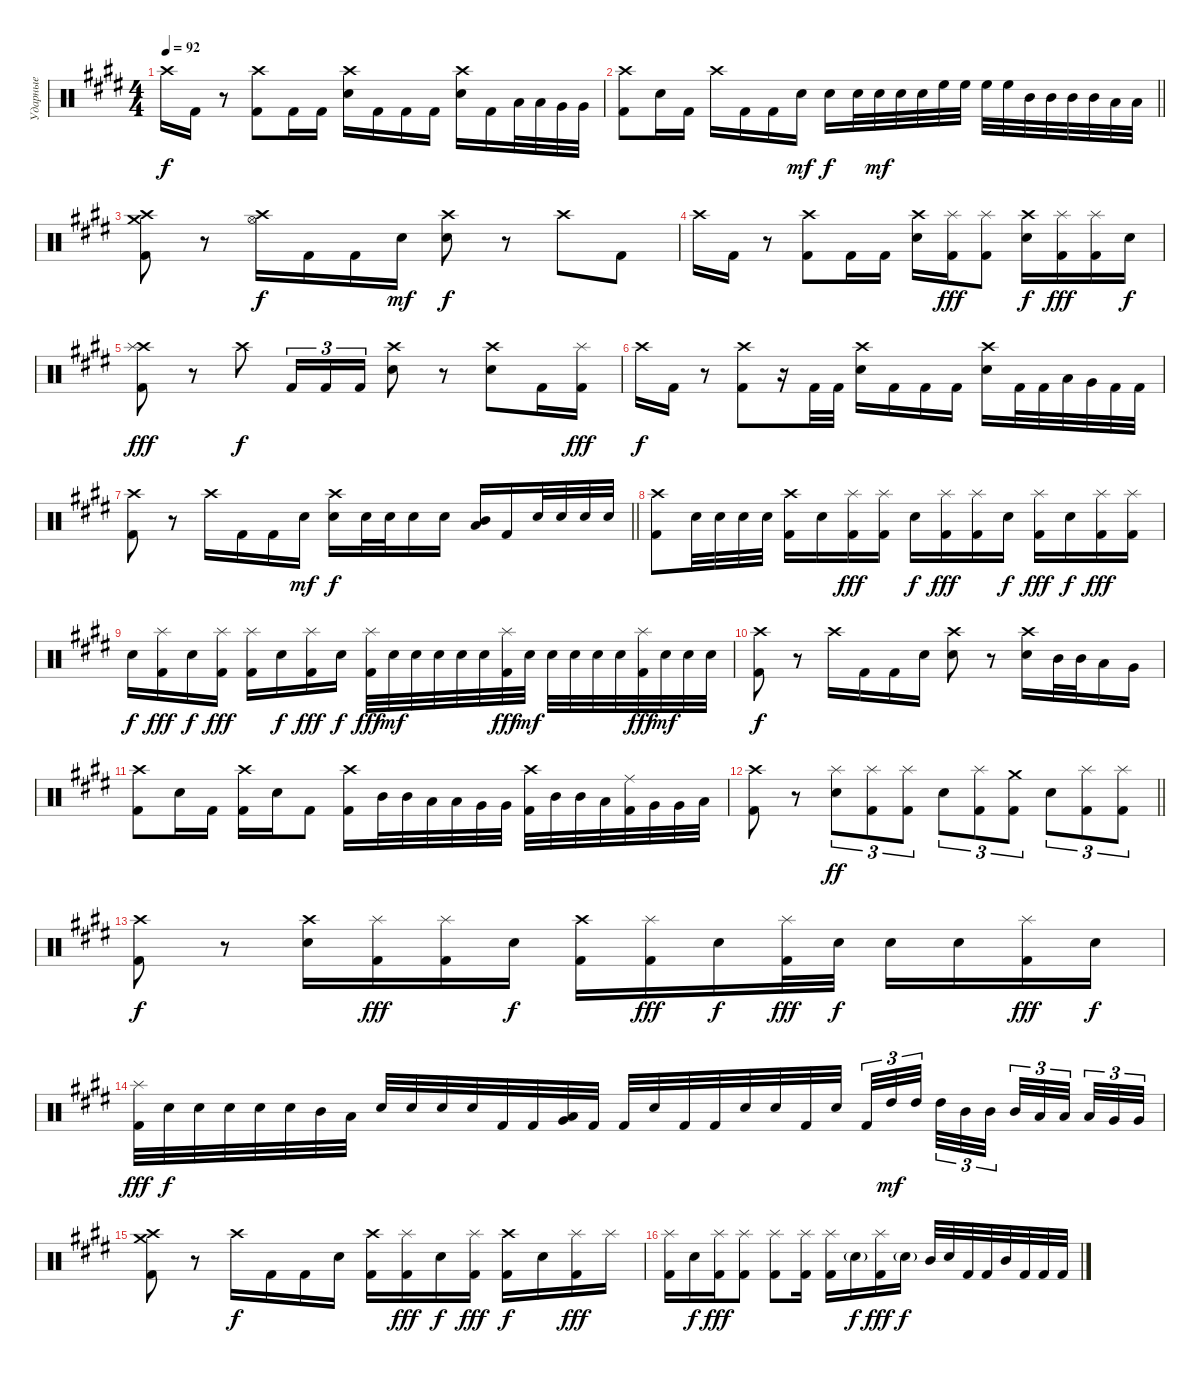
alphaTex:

\track ("Ударные" "Ударные") {instrument percussion}
\staff {score}
\articulation defaults
\ts (4 4)
\tempo 92
\clef neutral
\ks e "Crash high (hit)".16{dy f} "Kick (hit) 2".16
r.8 ("Crash high (hit)" "Kick (hit) 2").8 "Kick (hit) 2".16 "Kick (hit) 2".16 ("Crash high (hit)" "Electric Snare (hit)").16 "Kick (hit) 2".16 "Kick (hit) 2".16 "Kick (hit) 2".16 ("Crash high (hit)" "Electric Snare (hit)").16 "Kick (hit) 2".16 "Low Tom (hit)".32 "Low Tom (hit)".32 "Very Low Tom (hit)".32 "Very Low Tom (hit)".32 |
\barLineRight lightlight
("Crash high (hit)" "Kick (hit) 2").8 "Electric Snare (hit)".16 "Kick (hit) 2".16 "Crash high (hit)".16 "Kick (hit) 2".16 "Kick (hit) 2".16 "Electric Snare (hit)".16{dy mf} "Electric Snare (hit)".16{dy f} "Electric Snare (hit)".32 "Electric Snare (hit)".32{dy mf} "Electric Snare (hit)".32 "Electric Snare (hit)".32 "High Floor Tom (hit)".32 "High Floor Tom (hit)".32 "High Floor Tom (hit)".32 "High Floor Tom (hit)".32 "Mid Tom (hit)".32 "Mid Tom (hit)".32 "Mid Tom (hit)".32 "Mid Tom (hit)".32 "Low Tom (hit)".32 "Low Tom (hit)".32 |
("Crash high (hit)" "Crash medium (hit)" "Kick (hit) 2").8 r.8 ("Crash high (hit)" "Hi-Hat (open)").16{dy f} "Kick (hit) 2".16 "Kick (hit) 2".16 "Electric Snare (hit)".16{dy mf} ("Crash high (hit)" "Electric Snare (hit)").8{dy f} r.8 "Crash high (hit)".8 "Kick (hit) 2".8 |
"Crash high (hit)".16 "Kick (hit) 2".16 r.8 ("Crash high (hit)" "Kick (hit) 2").8 "Kick (hit) 2".16 "Kick (hit) 2".16 ("Crash high (hit)" "Electric Snare (hit)").16 ("Splash (hit)" "Kick (hit) 2").16{dy fff} ("Splash (hit)" "Kick (hit) 2").8 ("Crash high (hit)" "Electric Snare (hit)").16{dy f} ("Splash (hit)" "Kick (hit) 2").16{dy fff} ("Splash (hit)" "Kick (hit) 2").16 "Electric Snare (hit)".16{dy f} |
("Crash high (hit)" "Splash (hit)" "Kick (hit) 2").8{dy fff} r.8 "Crash high (hit)".8{dy f} "Kick (hit) 2".16{tu (3 2)} "Kick (hit) 2".16{tu (3 2)} "Kick (hit) 2".16{tu (3 2)} ("Crash high (hit)" "Electric Snare (hit)").8 r.8 ("Crash high (hit)" "Electric Snare (hit)").8 "Kick (hit) 2".16 ("Splash (hit)" "Kick (hit) 2").16{dy fff} |
"Crash high (hit)".16{dy f} "Kick (hit) 2".16 r.8 ("Crash high (hit)" "Kick (hit) 2").8 r.16 "Kick (hit) 2".32 "Kick (hit) 2".32 ("Crash high (hit)" "Electric Snare (hit)").16 "Kick (hit) 2".16 "Kick (hit) 2".16 "Kick (hit) 2".16 ("Crash high (hit)" "Electric Snare (hit)").16 "Kick (hit) 2".32 "Kick (hit) 2".32 "Low Tom (hit)".32 "Very Low Tom (hit)".32 "Kick (hit) 2".32 "Kick (hit) 2".32 |
\barLineRight lightlight
("Crash high (hit)" "Kick (hit) 2").8 r.8 "Crash high (hit)".16 "Kick (hit) 2".16 "Kick (hit) 2".16 "Electric Snare (hit)".16{dy mf} ("Crash high (hit)" "Electric Snare (hit)").16{dy f} "Electric Snare (hit)".32 "Electric Snare (hit)".32 "Electric Snare (hit)".16 "Electric Snare (hit)".16 ("Low Tom (hit)" "Mid Tom (hit)").16 "Kick (hit) 2".16 "Electric Snare (hit)".32 "Electric Snare (hit)".32 "Electric Snare (hit)".32 "Electric Snare (hit)".32 |
("Crash high (hit)" "Kick (hit) 2").8 "Electric Snare (hit)".32 "Electric Snare (hit)".32 "Electric Snare (hit)".32 "Electric Snare (hit)".32 ("Crash high (hit)" "Kick (hit) 2").16 "Electric Snare (hit)".16 ("Splash (hit)" "Kick (hit) 2").16{dy fff} ("Splash (hit)" "Kick (hit) 2").16 "Electric Snare (hit)".16{dy f} ("Splash (hit)" "Kick (hit) 2").16{dy fff} ("Splash (hit)" "Kick (hit) 2").16 "Electric Snare (hit)".16{dy f} ("Splash (hit)" "Kick (hit) 2").16{dy fff} "Electric Snare (hit)".16{dy f} ("Splash (hit)" "Kick (hit) 2").16{dy fff} ("Splash (hit)" "Kick (hit) 2").16 |
"Electric Snare (hit)".16{dy f} ("Splash (hit)" "Kick (hit) 2").16{dy fff} "Electric Snare (hit)".16{dy f} ("Splash (hit)" "Kick (hit) 2").16{dy fff} ("Splash (hit)" "Kick (hit) 2").16 "Electric Snare (hit)".16{dy f} ("Splash (hit)" "Kick (hit) 2").16{dy fff} "Electric Snare (hit)".16{dy f} ("Splash (hit)" "Kick (hit) 2").32{dy fff} "Electric Snare (hit)".32{dy mf} "Electric Snare (hit)".32 "Electric Snare (hit)".32 "Electric Snare (hit)".32 "Electric Snare (hit)".32 ("Splash (hit)" "Kick (hit) 2").32{dy fff} "Electric Snare (hit)".32{dy mf} "Electric Snare (hit)".32 "Electric Snare (hit)".32 "Electric Snare (hit)".32 "Electric Snare (hit)".32 ("Splash (hit)" "Kick (hit) 2").32{dy fff} "Electric Snare (hit)".32{dy mf} "Electric Snare (hit)".32 "Electric Snare (hit)".32 |
("Crash high (hit)" "Kick (hit) 2").8{dy f} r.8 "Crash high (hit)".16 "Kick (hit) 2".16 "Kick (hit) 2".16 "Electric Snare (hit)".16 ("Crash high (hit)" "Electric Snare (hit)").8 r.8 ("Crash high (hit)" "Electric Snare (hit)").16 "Mid Tom (hit)".32 "Mid Tom (hit)".32 "Low Tom (hit)".16 "Very Low Tom (hit)".16 |
("Crash high (hit)" "Kick (hit) 2").8 "Electric Snare (hit)".16 "Kick (hit) 2".16 ("Crash high (hit)" "Kick (hit) 2").16 "Electric Snare (hit)".16 "Kick (hit) 2".8 ("Crash high (hit)" "Kick (hit) 2").16 "Mid Tom (hit)".32 "Mid Tom (hit)".32 "Low Tom (hit)".32 "Low Tom (hit)".32 "Very Low Tom (hit)".32 "Very Low Tom (hit)".32 ("Crash high (hit)" "Kick (hit) 2").32 "Mid Tom (hit)".32 "Mid Tom (hit)".32 "Low Tom (hit)".32 ("Ride (middle)" "Kick (hit) 2").32 "Very Low Tom (hit)".32 "Very Low Tom (hit)".32 "Low Floor Tom (hit)".32 |
\barLineRight lightlight
("Crash high (hit)" "Kick (hit) 2").8 r.8 ("Splash (hit)" "Electric Snare (hit)").8{tu (3 2) dy ff} ("Splash (hit)" "Kick (hit) 2").8{tu (3 2)} ("Splash (hit)" "Kick (hit) 2").8{tu (3 2)} "Electric Snare (hit)".8{tu (3 2)} ("Splash (hit)" "Kick (hit) 2").8{tu (3 2)} ("Crash medium (hit)" "Kick (hit) 2").8{tu (3 2)} "Electric Snare (hit)".8{tu (3 2)} ("Splash (hit)" "Kick (hit) 2").8{tu (3 2)} ("Splash (hit)" "Kick (hit) 2").8{tu (3 2)} |
("Crash high (hit)" "Kick (hit) 2").8{dy f} r.8 ("Crash high (hit)" "Electric Snare (hit)").16 ("Splash (hit)" "Kick (hit) 2").16{dy fff} ("Splash (hit)" "Kick (hit) 2").16 "Electric Snare (hit)".16{dy f} ("Crash high (hit)" "Kick (hit) 2").16 ("Splash (hit)" "Kick (hit) 2").16{dy fff} "Electric Snare (hit)".16{dy f} ("Splash (hit)" "Kick (hit) 2").32{dy fff} "Electric Snare (hit)".32{dy f} "Electric Snare (hit)".16 "Electric Snare (hit)".16 ("Splash (hit)" "Kick (hit) 2").16{dy fff} "Electric Snare (hit)".16{dy f} |
("Splash (hit)" "Kick (hit) 2").32{dy fff} "Electric Snare (hit)".32{dy f} "Electric Snare (hit)".32 "Electric Snare (hit)".32 "Electric Snare (hit)".32 "Electric Snare (hit)".32 "Mid Tom (hit)".32 "Low Tom (hit)".32 "Electric Snare (hit)".32 "Electric Snare (hit)".32 "Electric Snare (hit)".32 "Electric Snare (hit)".32 "Kick (hit) 2".32 "Kick (hit) 2".32 ("Low Tom (hit)" "Very Low Tom (hit)").32 "Kick (hit) 2".32 "Kick (hit) 2".32 "Electric Snare (hit)".32 "Kick (hit) 2".32 "Kick (hit) 2".32 "Electric Snare (hit)".32 "Electric Snare (hit)".32 "Kick (hit) 2".32 "Electric Snare (hit)".32 "Kick (hit) 2".32{tu (3 2)} "High Tom (hit)".32{tu (3 2) dy mf} "High Tom (hit)".32{tu (3 2) beam splitsecondary} "High Tom (hit)".32{tu (3 2)} "Mid Tom (hit)".32{tu (3 2)} "Mid Tom (hit)".32{tu (3 2) beam splitsecondary} "Mid Tom (hit)".32{tu (3 2)} "Low Tom (hit)".32{tu (3 2)} "Low Tom (hit)".32{tu (3 2) beam splitsecondary} "Low Tom (hit)".32{tu (3 2)} "Very Low Tom (hit)".32{tu (3 2)} "Very Low Tom (hit)".32{tu (3 2)} |
("Crash high (hit)" "Crash medium (hit)" "Kick (hit) 2").8 r.8 "Crash high (hit)".16{dy f} "Kick (hit) 2".16 "Kick (hit) 2".16 "Electric Snare (hit)".16 ("Crash high (hit)" "Kick (hit) 2").16 ("Splash (hit)" "Kick (hit) 2").16{dy fff} "Electric Snare (hit)".16{dy f} ("Splash (hit)" "Kick (hit) 2").16{dy fff} ("Crash high (hit)" "Kick (hit) 2").16{dy f} "Electric Snare (hit)".16 ("Splash (hit)" "Kick (hit) 2").16{dy fff} "Splash (hit)".16 |
("Splash (hit)" "Kick (hit) 2").16 "Electric Snare (hit)".16{dy f} ("Splash (hit)" "Kick (hit) 2").16{dy fff} ("Splash (hit)" "Kick (hit) 2").8 ("Splash (hit)" "Kick (hit) 2").8 ("Splash (hit)" "Kick (hit) 2").16 ("Splash (hit)" "Kick (hit) 2").16 "Electric Snare (hit)"{g}.16{dy f} ("Splash (hit)" "Kick (hit) 2").16{dy fff} "Electric Snare (hit)"{g}.16{dy f} "Mid Tom (hit)".32 "Electric Snare (hit)".32 "Kick (hit) 2".32 "Kick (hit) 2".32 "Mid Tom (hit)".32 "Kick (hit) 2".32 "Kick (hit) 2".32 "Kick (hit) 2".32
